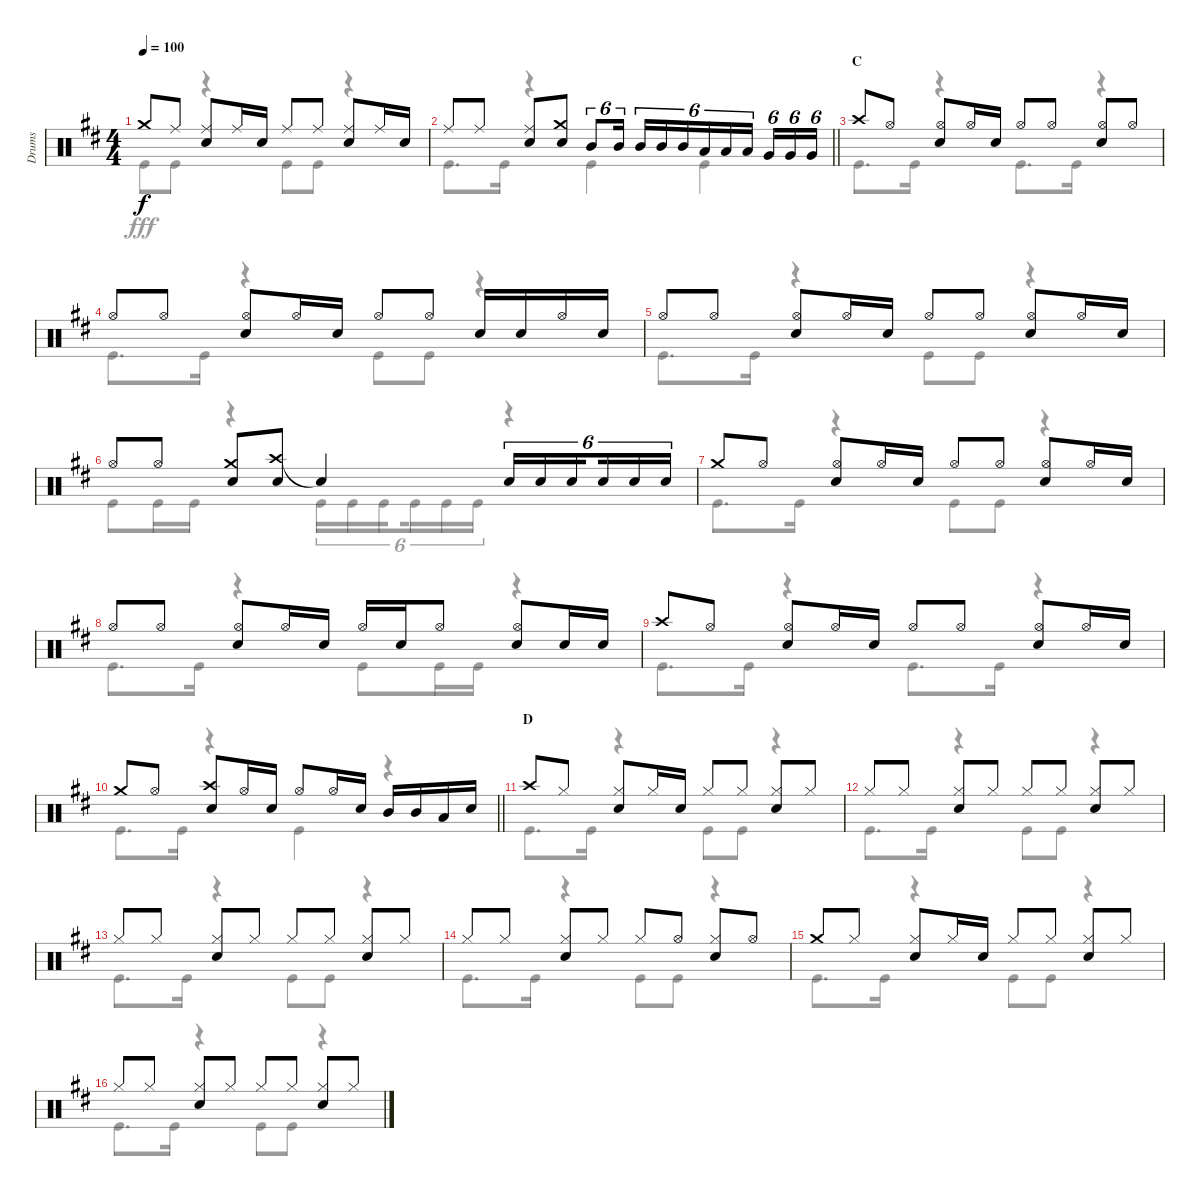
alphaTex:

\track ("Drums" "Drums") {instrument percussion}
\staff {score}
\articulation defaults
\voice
\ts (4 4)
\tempo 100
\clef neutral
\ks d "Crash medium (hit)".8{dy f} "Ride (middle)".8
("Ride (middle)" "Snare (hit) 2").8 "Ride (middle)".16 "Snare (hit) 2".16 "Ride (middle)".8 "Ride (middle)".8 ("Ride (middle)" "Snare (hit) 2").8 "Ride (middle)".16 "Snare (hit) 2".16 |
\barLineRight lightlight "Ride (middle)".8 "Ride (middle)".8
("Ride (middle)" "Snare (hit) 2").8 ("Crash medium (hit)" "Snare (hit) 2").8 "Mid Tom (hit)".8{tu (6 4)} "Mid Tom (hit)".16{tu (6 4) beam splitsecondary} "Mid Tom (hit)".16{tu (6 4)} "Mid Tom (hit)".16{tu (6 4)} "Mid Tom (hit)".16{tu (6 4)} "Low Tom (hit)".16{tu (6 4)} "Low Tom (hit)".16{tu (6 4)} "Low Tom (hit)".16{tu (6 4) beam splitsecondary} "Very Low Tom (hit)".16{tu (6 4)} "Very Low Tom (hit)".16{tu (6 4)} "Very Low Tom (hit)".16{tu (6 4)} |
\section ("" "C")
"Crash high (hit)".8 "Hi-Hat (open)".8 ("Hi-Hat (open)" "Snare (hit) 2").8 "Hi-Hat (open)".16 "Snare (hit) 2".16 "Hi-Hat (open)".8 "Hi-Hat (open)".8 ("Hi-Hat (open)" "Snare (hit) 2").8 "Hi-Hat (open)".8 |
"Hi-Hat (open)".8 "Hi-Hat (open)".8 ("Hi-Hat (open)" "Snare (hit) 2").8 "Hi-Hat (open)".16 "Snare (hit) 2".16 "Hi-Hat (open)".8 "Hi-Hat (open)".8 "Snare (hit) 2".16 "Snare (hit) 2".16 "Hi-Hat (open)".16 "Snare (hit) 2".16 |
"Hi-Hat (open)".8 "Hi-Hat (open)".8 ("Hi-Hat (open)" "Snare (hit) 2").8 "Hi-Hat (open)".16 "Snare (hit) 2".16 "Hi-Hat (open)".8 "Hi-Hat (open)".8 ("Hi-Hat (open)" "Snare (hit) 2").8 "Hi-Hat (open)".16 "Snare (hit) 2".16 |
"Hi-Hat (open)".8 "Hi-Hat (open)".8 ("Crash medium (hit)" "Snare (hit) 2").8 ("Crash high (hit)" "Snare (hit) 2").8 "Snare (hit)"{t}.4 "Snare (hit) 2".16{tu (6 4)} "Snare (hit) 2".16{tu (6 4)} "Snare (hit) 2".16{tu (6 4) beam splitsecondary} "Snare (hit) 2".16{tu (6 4)} "Snare (hit) 2".16{tu (6 4)} "Snare (hit) 2".16{tu (6 4)} |
"Crash medium (hit)".8 "Hi-Hat (open)".8 ("Hi-Hat (open)" "Snare (hit) 2").8 "Hi-Hat (open)".16 "Snare (hit) 2".16 "Hi-Hat (open)".8 "Hi-Hat (open)".8 ("Hi-Hat (open)" "Snare (hit) 2").8 "Hi-Hat (open)".16 "Snare (hit) 2".16 |
"Hi-Hat (open)".8 "Hi-Hat (open)".8 ("Hi-Hat (open)" "Snare (hit) 2").8 "Hi-Hat (open)".16 "Snare (hit) 2".16 "Hi-Hat (open)".16 "Snare (hit) 2".16 "Hi-Hat (open)".8 ("Hi-Hat (open)" "Snare (hit) 2").8 "Snare (hit) 2".16 "Snare (hit) 2".16 |
"Crash high (hit)".8 "Hi-Hat (open)".8 ("Hi-Hat (open)" "Snare (hit) 2").8 "Hi-Hat (open)".16 "Snare (hit) 2".16 "Hi-Hat (open)".8 "Hi-Hat (open)".8 ("Hi-Hat (open)" "Snare (hit) 2").8 "Hi-Hat (open)".16 "Snare (hit) 2".16 |
\barLineRight lightlight "Crash medium (hit)".8 "Hi-Hat (open)".8
("Crash high (hit)" "Snare (hit) 2").8 "Hi-Hat (open)".16 "Snare (hit) 2".16 "Hi-Hat (open)".8 "Hi-Hat (open)".16 "Snare (hit) 2".16 "Mid Tom (hit)".16 "Mid Tom (hit)".16 "Low Tom (hit)".16 "Snare (hit) 2".16 |
\section ("" "D")
"Crash high (hit)".8 "Hi-Hat (closed)".8 ("Hi-Hat (closed)" "Snare (hit) 2").8 "Hi-Hat (closed)".16 "Snare (hit) 2".16 "Hi-Hat (closed)".8 "Hi-Hat (closed)".8 ("Hi-Hat (closed)" "Snare (hit) 2").8 "Hi-Hat (closed)".8 |
"Hi-Hat (closed)".8 "Hi-Hat (closed)".8 ("Hi-Hat (closed)" "Snare (hit) 2").8 "Hi-Hat (closed)".8 "Hi-Hat (closed)".8 "Hi-Hat (closed)".8 ("Hi-Hat (closed)" "Snare (hit) 2").8 "Hi-Hat (closed)".8 |
"Hi-Hat (closed)".8 "Hi-Hat (closed)".8 ("Hi-Hat (closed)" "Snare (hit) 2").8 "Hi-Hat (closed)".8 "Hi-Hat (closed)".8 "Hi-Hat (closed)".8 ("Hi-Hat (closed)" "Snare (hit) 2").8 "Hi-Hat (closed)".8 |
"Hi-Hat (closed)".8 "Hi-Hat (closed)".8 ("Hi-Hat (closed)" "Snare (hit) 2").8 "Hi-Hat (closed)".8 "Hi-Hat (closed)".8 "Hi-Hat (open)".8 ("Hi-Hat (closed)" "Snare (hit) 2").8 "Hi-Hat (open)".8 |
"Crash medium (hit)".8 "Hi-Hat (closed)".8 ("Hi-Hat (closed)" "Snare (hit) 2").8 "Hi-Hat (closed)".16 "Snare (hit) 2".16 "Hi-Hat (closed)".8 "Hi-Hat (closed)".8 ("Hi-Hat (closed)" "Snare (hit) 2").8 "Hi-Hat (closed)".8 |
"Hi-Hat (closed)".8 "Hi-Hat (closed)".8 ("Hi-Hat (closed)" "Snare (hit) 2").8 "Hi-Hat (closed)".8 "Hi-Hat (closed)".8 "Hi-Hat (closed)".8 ("Hi-Hat (closed)" "Snare (hit) 2").8 "Hi-Hat (closed)".8
\voice
\clef neutral
\ottava regular
\simile none
\ks d "Kick (hit)".8{dy fff} "Kick (hit)".8
r.4 "Kick (hit)".8 "Kick (hit)".8 r.4 |
\barLineRight lightlight "Kick (hit)".8{d} "Kick (hit)".16
r.4 "Kick (hit)".4 "Kick (hit)".4 |
"Kick (hit)".8{d} "Kick (hit)".16 r.4 "Kick (hit)".8{d} "Kick (hit)".16 r.4 |
"Kick (hit)".8{d} "Kick (hit)".16 r.4 "Kick (hit)".8 "Kick (hit)".8 r.4 |
"Kick (hit)".8{d} "Kick (hit)".16 r.4 "Kick (hit)".8 "Kick (hit)".8 r.4 |
"Kick (hit)".8 "Kick (hit)".16 "Kick (hit)".16 r.4 "Kick (hit)".16{tu (6 4)} "Kick (hit)".16{tu (6 4)} "Kick (hit)".16{tu (6 4) beam splitsecondary} "Kick (hit)".16{tu (6 4)} "Kick (hit)".16{tu (6 4)} "Kick (hit)".16{tu (6 4)} r.4 |
"Kick (hit)".8{d} "Kick (hit)".16 r.4 "Kick (hit)".8 "Kick (hit)".8 r.4 |
"Kick (hit)".8{d} "Kick (hit)".16 r.4 "Kick (hit)".8 "Kick (hit)".16 "Kick (hit)".16 r.4 |
"Kick (hit)".8{d} "Kick (hit)".16 r.4 "Kick (hit)".8{d} "Kick (hit)".16 r.4 |
\barLineRight lightlight "Kick (hit)".8{d} "Kick (hit)".16
r.4 "Kick (hit)".4 r.4 |
"Kick (hit)".8{d} "Kick (hit)".16 r.4 "Kick (hit)".8 "Kick (hit)".8 r.4 |
"Kick (hit)".8{d} "Kick (hit)".16 r.4 "Kick (hit)".8 "Kick (hit)".8 r.4 |
"Kick (hit)".8{d} "Kick (hit)".16 r.4 "Kick (hit)".8 "Kick (hit)".8 r.4 |
"Kick (hit)".8{d} "Kick (hit)".16 r.4 "Kick (hit)".8 "Kick (hit)".8 r.4 |
"Kick (hit)".8{d} "Kick (hit)".16 r.4 "Kick (hit)".8 "Kick (hit)".8 r.4 |
"Kick (hit)".8{d} "Kick (hit)".16 r.4 "Kick (hit)".8 "Kick (hit)".8 r.4
